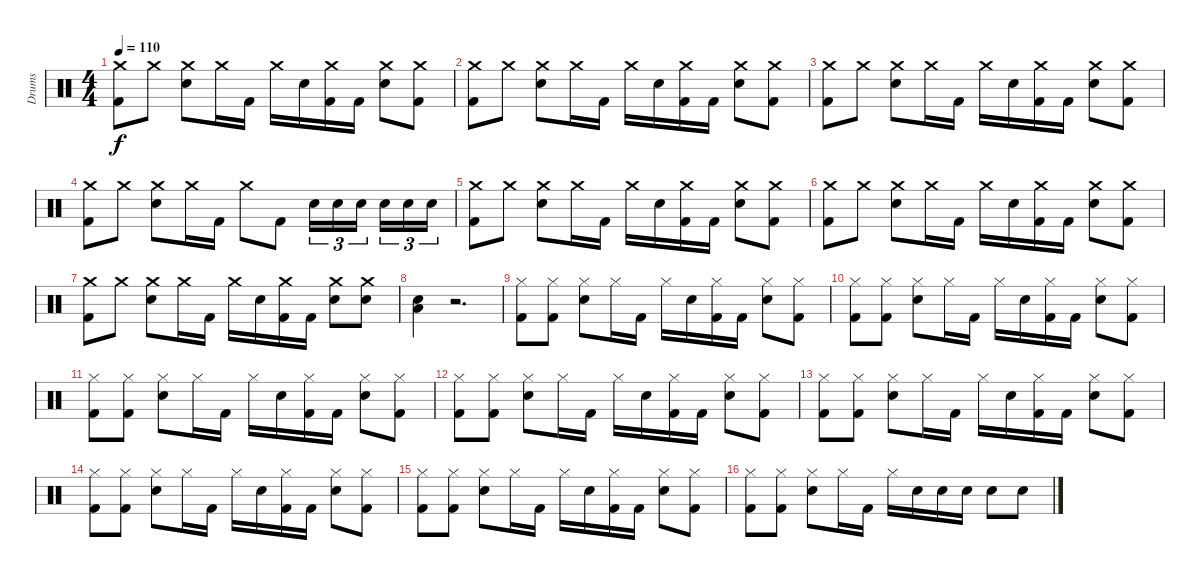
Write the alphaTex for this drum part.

\track ("Drums" "Drums") {instrument percussion}
\staff {score}
\articulation defaults
\ts (4 4)
\tempo 110
\clef neutral
\ks c
("Crash medium (hit)" "Kick (hit) 2").8{dy f} "Crash medium (hit)".8 ("Crash medium (hit)" "Electric Snare (hit)").8 "Crash medium (hit)".16 "Kick (hit) 2".16 "Crash medium (hit)".16 "Electric Snare (hit)".16 ("Crash medium (hit)" "Kick (hit) 2").16 "Kick (hit) 2".16 ("Crash medium (hit)" "Electric Snare (hit)").8 ("Crash medium (hit)" "Kick (hit) 2").8 |
("Crash medium (hit)" "Kick (hit) 2").8 "Crash medium (hit)".8 ("Crash medium (hit)" "Electric Snare (hit)").8 "Crash medium (hit)".16 "Kick (hit) 2".16 "Crash medium (hit)".16 "Electric Snare (hit)".16 ("Crash medium (hit)" "Kick (hit) 2").16 "Kick (hit) 2".16 ("Crash medium (hit)" "Electric Snare (hit)").8 ("Crash medium (hit)" "Kick (hit) 2").8 |
("Crash medium (hit)" "Kick (hit) 2").8 "Crash medium (hit)".8 ("Crash medium (hit)" "Electric Snare (hit)").8 "Crash medium (hit)".16 "Kick (hit) 2".16 "Crash medium (hit)".16 "Electric Snare (hit)".16 ("Crash medium (hit)" "Kick (hit) 2").16 "Kick (hit) 2".16 ("Crash medium (hit)" "Electric Snare (hit)").8 ("Crash medium (hit)" "Kick (hit) 2").8 |
("Crash medium (hit)" "Kick (hit) 2").8 "Crash medium (hit)".8 ("Crash medium (hit)" "Electric Snare (hit)").8 "Crash medium (hit)".16 "Kick (hit) 2".16 "Crash medium (hit)".8 "Kick (hit) 2".8 "Electric Snare (hit)".16{tu (3 2)} "Electric Snare (hit)".16{tu (3 2)} "Electric Snare (hit)".16{tu (3 2)} "Electric Snare (hit)".16{tu (3 2)} "Electric Snare (hit)".16{tu (3 2)} "Electric Snare (hit)".16{tu (3 2)} |
("Crash medium (hit)" "Kick (hit) 2").8 "Crash medium (hit)".8 ("Crash medium (hit)" "Electric Snare (hit)").8 "Crash medium (hit)".16 "Kick (hit) 2".16 "Crash medium (hit)".16 "Electric Snare (hit)".16 ("Crash medium (hit)" "Kick (hit) 2").16 "Kick (hit) 2".16 ("Crash medium (hit)" "Electric Snare (hit)").8 ("Crash medium (hit)" "Kick (hit) 2").8 |
("Crash medium (hit)" "Kick (hit) 2").8 "Crash medium (hit)".8 ("Crash medium (hit)" "Electric Snare (hit)").8 "Crash medium (hit)".16 "Kick (hit) 2".16 "Crash medium (hit)".16 "Electric Snare (hit)".16 ("Crash medium (hit)" "Kick (hit) 2").16 "Kick (hit) 2".16 ("Crash medium (hit)" "Electric Snare (hit)").8 ("Crash medium (hit)" "Kick (hit) 2").8 |
("Crash medium (hit)" "Kick (hit) 2").8 "Crash medium (hit)".8 ("Crash medium (hit)" "Electric Snare (hit)").8 "Crash medium (hit)".16 "Kick (hit) 2".16 "Crash medium (hit)".16 "Electric Snare (hit)".16 ("Crash medium (hit)" "Kick (hit) 2").16 "Kick (hit) 2".16 ("Crash medium (hit)" "Electric Snare (hit)").8 ("Crash medium (hit)" "Electric Snare (hit)").8 |
("Low Floor Tom (hit)" "Electric Snare (hit)").4 r.2{d} |
("Hi-Hat (closed)" "Kick (hit) 2").8 ("Hi-Hat (closed)" "Kick (hit) 2").8 ("Hi-Hat (closed)" "Electric Snare (hit)").8 "Hi-Hat (closed)".16 "Kick (hit) 2".16 "Hi-Hat (closed)".16 "Electric Snare (hit)".16 ("Hi-Hat (closed)" "Kick (hit) 2").16 "Kick (hit) 2".16 ("Hi-Hat (closed)" "Electric Snare (hit)").8 ("Hi-Hat (closed)" "Kick (hit) 2").8 |
("Hi-Hat (closed)" "Kick (hit) 2").8 ("Hi-Hat (closed)" "Kick (hit) 2").8 ("Hi-Hat (closed)" "Electric Snare (hit)").8 "Hi-Hat (closed)".16 "Kick (hit) 2".16 "Hi-Hat (closed)".16 "Electric Snare (hit)".16 ("Hi-Hat (closed)" "Kick (hit) 2").16 "Kick (hit) 2".16 ("Hi-Hat (closed)" "Electric Snare (hit)").8 ("Hi-Hat (closed)" "Kick (hit) 2").8 |
("Hi-Hat (closed)" "Kick (hit) 2").8 ("Hi-Hat (closed)" "Kick (hit) 2").8 ("Hi-Hat (closed)" "Electric Snare (hit)").8 "Hi-Hat (closed)".16 "Kick (hit) 2".16 "Hi-Hat (closed)".16 "Electric Snare (hit)".16 ("Hi-Hat (closed)" "Kick (hit) 2").16 "Kick (hit) 2".16 ("Hi-Hat (closed)" "Electric Snare (hit)").8 ("Hi-Hat (closed)" "Kick (hit) 2").8 |
("Hi-Hat (closed)" "Kick (hit) 2").8 ("Hi-Hat (closed)" "Kick (hit) 2").8 ("Hi-Hat (closed)" "Electric Snare (hit)").8 "Hi-Hat (closed)".16 "Kick (hit) 2".16 "Hi-Hat (closed)".16 "Electric Snare (hit)".16 ("Hi-Hat (closed)" "Kick (hit) 2").16 "Kick (hit) 2".16 ("Hi-Hat (closed)" "Electric Snare (hit)").8 ("Hi-Hat (closed)" "Kick (hit) 2").8 |
("Hi-Hat (closed)" "Kick (hit) 2").8 ("Hi-Hat (closed)" "Kick (hit) 2").8 ("Hi-Hat (closed)" "Electric Snare (hit)").8 "Hi-Hat (closed)".16 "Kick (hit) 2".16 "Hi-Hat (closed)".16 "Electric Snare (hit)".16 ("Hi-Hat (closed)" "Kick (hit) 2").16 "Kick (hit) 2".16 ("Hi-Hat (closed)" "Electric Snare (hit)").8 ("Hi-Hat (closed)" "Kick (hit) 2").8 |
("Hi-Hat (closed)" "Kick (hit) 2").8 ("Hi-Hat (closed)" "Kick (hit) 2").8 ("Hi-Hat (closed)" "Electric Snare (hit)").8 "Hi-Hat (closed)".16 "Kick (hit) 2".16 "Hi-Hat (closed)".16 "Electric Snare (hit)".16 ("Hi-Hat (closed)" "Kick (hit) 2").16 "Kick (hit) 2".16 ("Hi-Hat (closed)" "Electric Snare (hit)").8 ("Hi-Hat (closed)" "Kick (hit) 2").8 |
("Hi-Hat (closed)" "Kick (hit) 2").8 ("Hi-Hat (closed)" "Kick (hit) 2").8 ("Hi-Hat (closed)" "Electric Snare (hit)").8 "Hi-Hat (closed)".16 "Kick (hit) 2".16 "Hi-Hat (closed)".16 "Electric Snare (hit)".16 ("Hi-Hat (closed)" "Kick (hit) 2").16 "Kick (hit) 2".16 ("Hi-Hat (closed)" "Electric Snare (hit)").8 ("Hi-Hat (closed)" "Kick (hit) 2").8 |
("Hi-Hat (closed)" "Kick (hit) 2").8 ("Hi-Hat (closed)" "Kick (hit) 2").8 ("Hi-Hat (closed)" "Electric Snare (hit)").8 "Hi-Hat (closed)".16 "Kick (hit) 2".16 "Hi-Hat (closed)".16 "Electric Snare (hit)".16 "Electric Snare (hit)".16 "Electric Snare (hit)".16 "Electric Snare (hit)".8 "Electric Snare (hit)".8
